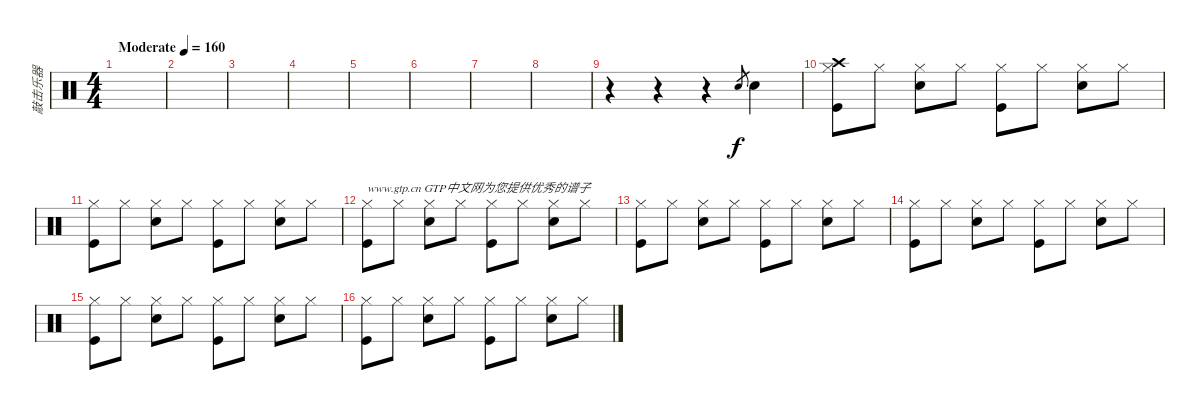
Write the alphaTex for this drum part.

\track ("敲击乐器" "敲击乐器") {instrument percussion}
\staff {score}
\articulation defaults
\ts (4 4)
\tempo (160 "Moderate")
\clef neutral
\ks c
|
|
|
|
|
|
|
|
r.4 r.4 r.4 "Snare (hit) 2".8{gr} "Snare (hit) 2".4 |
("Crash high (hit)" "Hi-Hat (closed)" "Kick (hit)").8 "Hi-Hat (closed)".8 ("Snare (hit) 2" "Hi-Hat (closed)").8 "Hi-Hat (closed)".8 ("Hi-Hat (closed)" "Kick (hit)").8 "Hi-Hat (closed)".8 ("Snare (hit) 2" "Hi-Hat (closed)").8 "Hi-Hat (closed)".8 |
("Hi-Hat (closed)" "Kick (hit)").8 "Hi-Hat (closed)".8 ("Snare (hit) 2" "Hi-Hat (closed)").8 "Hi-Hat (closed)".8 ("Hi-Hat (closed)" "Kick (hit)").8 "Hi-Hat (closed)".8 ("Snare (hit) 2" "Hi-Hat (closed)").8 "Hi-Hat (closed)".8 |
("Hi-Hat (closed)" "Kick (hit)").8{txt "www.gtp.cn GTP中文网为您提供优秀的谱子"} "Hi-Hat (closed)".8 ("Snare (hit) 2" "Hi-Hat (closed)").8 "Hi-Hat (closed)".8 ("Hi-Hat (closed)" "Kick (hit)").8 "Hi-Hat (closed)".8 ("Snare (hit) 2" "Hi-Hat (closed)").8 "Hi-Hat (closed)".8 |
("Hi-Hat (closed)" "Kick (hit)").8 "Hi-Hat (closed)".8 ("Snare (hit) 2" "Hi-Hat (closed)").8 "Hi-Hat (closed)".8 ("Hi-Hat (closed)" "Kick (hit)").8 "Hi-Hat (closed)".8 ("Snare (hit) 2" "Hi-Hat (closed)").8 "Hi-Hat (closed)".8 |
("Hi-Hat (closed)" "Kick (hit)").8 "Hi-Hat (closed)".8 ("Snare (hit) 2" "Hi-Hat (closed)").8 "Hi-Hat (closed)".8 ("Hi-Hat (closed)" "Kick (hit)").8 "Hi-Hat (closed)".8 ("Snare (hit) 2" "Hi-Hat (closed)").8 "Hi-Hat (closed)".8 |
("Hi-Hat (closed)" "Kick (hit)").8 "Hi-Hat (closed)".8 ("Snare (hit) 2" "Hi-Hat (closed)").8 "Hi-Hat (closed)".8 ("Hi-Hat (closed)" "Kick (hit)").8 "Hi-Hat (closed)".8 ("Snare (hit) 2" "Hi-Hat (closed)").8 "Hi-Hat (closed)".8 |
("Hi-Hat (closed)" "Kick (hit)").8 "Hi-Hat (closed)".8 ("Snare (hit) 2" "Hi-Hat (closed)").8 "Hi-Hat (closed)".8 ("Hi-Hat (closed)" "Kick (hit)").8 "Hi-Hat (closed)".8 ("Snare (hit) 2" "Hi-Hat (closed)").8 "Hi-Hat (closed)".8
